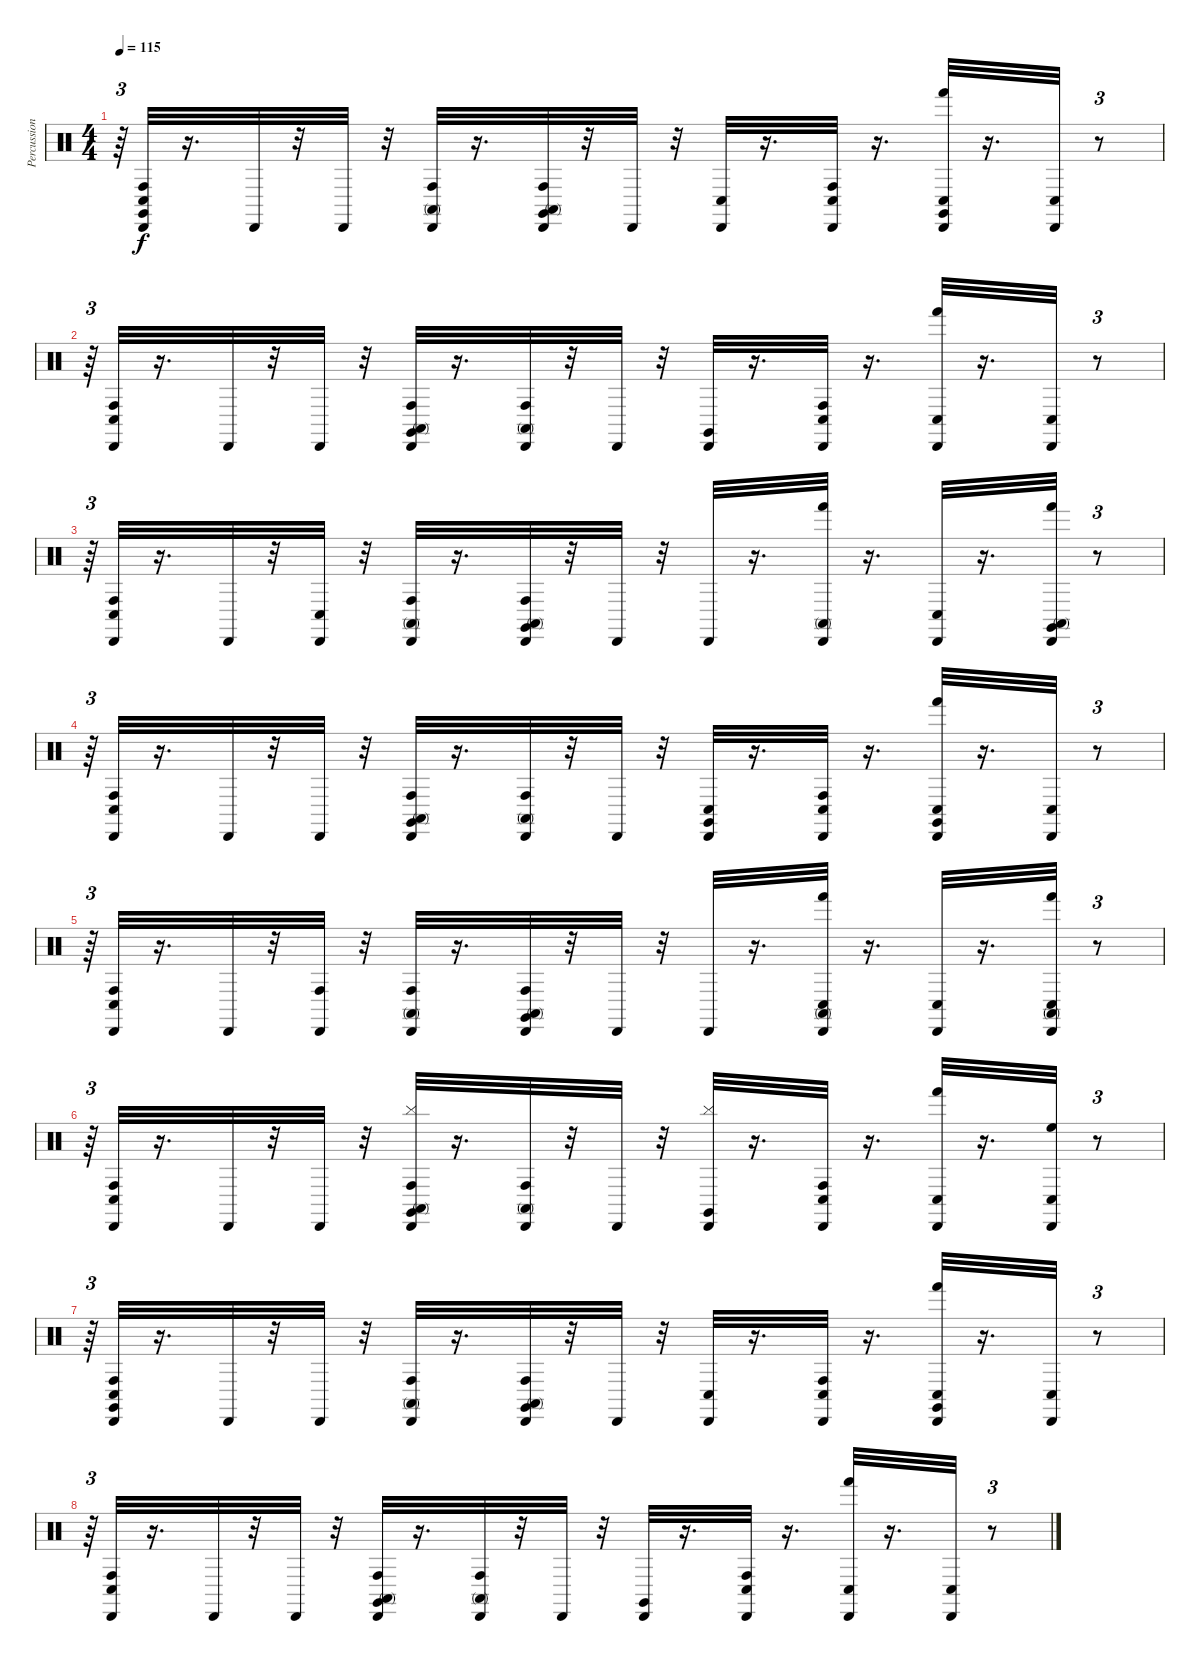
\track ("Percussion" "Percussion") {instrument percussion}
\staff {score}
\articulation defaults
\ts (4 4)
\tempo 115
\clef neutral
\ks c
r.64{tu (3 2) dy f} ("Claves (hit)" "Conga high (hit)" "Conga low (hit)" "Cabasa (hit)").32 r.16{d} "Cabasa (hit)".32 r.32 "Cabasa (hit)".32 r.32 ("Conga high (mute)" "Cabasa (hit)" "Conga high (hit)").32 r.16{d} ("Conga high (hit)" "Conga high (mute)" "Claves (hit)" "Cabasa (hit)").32 r.32 "Cabasa (hit)".32 r.32 ("Cabasa (hit)" "Conga low (hit)").32 r.16{d} ("Conga low (hit)" "Conga high (hit)" "Cabasa (hit)").32 r.16{d} ("Claves (hit)" "Conga low (hit)" "Hand (hit)" "Cabasa (hit)").32 r.16{d} ("Conga low (hit)" "Cabasa (hit)").32 r.8{tu (3 2)} |
r.64{tu (3 2)} ("Conga low (hit)" "Cabasa (hit)" "Conga high (hit)").32 r.16{d} "Cabasa (hit)".32 r.32 "Cabasa (hit)".32 r.32 ("Cabasa (hit)" "Conga high (mute)" "Claves (hit)" "Conga high (hit)").32 r.16{d} ("Conga high (hit)" "Conga high (mute)" "Cabasa (hit)").32 r.32 "Cabasa (hit)".32 r.32 ("Claves (hit)" "Cabasa (hit)").32 r.16{d} ("Cabasa (hit)" "Conga low (hit)" "Conga high (hit)").32 r.16{d} ("Conga low (hit)" "Cabasa (hit)" "Hand (hit)").32 r.16{d} ("Cabasa (hit)" "Conga low (hit)").32 r.8{tu (3 2)} |
r.64{tu (3 2)} ("Cabasa (hit)" "Conga low (hit)" "Conga high (hit)").32 r.16{d} "Cabasa (hit)".32 r.32 ("Cabasa (hit)" "Conga low (hit)").32 r.32 ("Conga high (mute)" "Cabasa (hit)" "Conga high (hit)").32 r.16{d} ("Conga high (mute)" "Conga high (hit)" "Claves (hit)" "Cabasa (hit)").32 r.32 "Cabasa (hit)".32 r.32 "Cabasa (hit)".32 r.16{d} ("Hand (hit)" "Cabasa (hit)" "Conga high (mute)").32 r.16{d} ("Cabasa (hit)" "Conga low (hit)").32 r.16{d} ("Hand (hit)" "Cabasa (hit)" "Claves (hit)" "Conga high (mute)").32 r.8{tu (3 2)} |
r.64{tu (3 2)} ("Conga high (hit)" "Cabasa (hit)" "Conga low (hit)").32 r.16{d} "Cabasa (hit)".32 r.32 "Cabasa (hit)".32 r.32 ("Cabasa (hit)" "Conga high (mute)" "Conga high (hit)" "Claves (hit)").32 r.16{d} ("Cabasa (hit)" "Conga high (hit)" "Conga high (mute)").32 r.32 "Cabasa (hit)".32 r.32 ("Claves (hit)" "Cabasa (hit)" "Conga low (hit)").32 r.16{d} ("Cabasa (hit)" "Conga low (hit)" "Conga high (hit)").32 r.16{d} ("Hand (hit)" "Cabasa (hit)" "Conga low (hit)" "Claves (hit)").32 r.16{d} ("Conga low (hit)" "Cabasa (hit)").32 r.8{tu (3 2)} |
r.64{tu (3 2)} ("Conga low (hit)" "Conga high (hit)" "Cabasa (hit)").32 r.16{d} "Cabasa (hit)".32 r.32 ("Conga high (hit)" "Cabasa (hit)").32 r.32 ("Conga high (hit)" "Conga high (mute)" "Cabasa (hit)").32 r.16{d} ("Conga high (hit)" "Cabasa (hit)" "Claves (hit)" "Conga high (mute)").32 r.32 "Cabasa (hit)".32 r.32 "Cabasa (hit)".32 r.16{d} ("Hand (hit)" "Cabasa (hit)" "Conga low (hit)" "Conga high (mute)").32 r.16{d} ("Cabasa (hit)" "Conga low (hit)").32 r.16{d} ("Conga high (mute)" "Hand (hit)" "Cabasa (hit)" "Conga low (hit)").32 r.8{tu (3 2)} |
r.64{tu (3 2)} ("Cabasa (hit)" "Conga low (hit)" "Conga high (hit)").32 r.16{d} "Cabasa (hit)".32 r.32 "Cabasa (hit)".32 r.32 ("Conga high (mute)" "Conga high (hit)" "Cabasa (hit)" "Cymbal (hit)" "Claves (hit)").32 r.16{d} ("Conga high (mute)" "Conga high (hit)" "Cabasa (hit)").32 r.32 "Cabasa (hit)".32 r.32 ("Claves (hit)" "Cymbal (hit)" "Cabasa (hit)").32 r.16{d} ("Cabasa (hit)" "Conga low (hit)" "Conga high (hit)").32 r.16{d} ("Hand (hit)" "Conga low (hit)" "Cabasa (hit)").32 r.16{d} ("High Floor Tom (hit)" "Conga low (hit)" "Cabasa (hit)").32 r.8{tu (3 2)} |
r.64{tu (3 2)} ("Conga high (hit)" "Cabasa (hit)" "Claves (hit)" "Conga low (hit)").32 r.16{d} "Cabasa (hit)".32 r.32 "Cabasa (hit)".32 r.32 ("Cabasa (hit)" "Conga high (mute)" "Conga high (hit)").32 r.16{d} ("Cabasa (hit)" "Claves (hit)" "Conga high (mute)" "Conga high (hit)").32 r.32 "Cabasa (hit)".32 r.32 ("Cabasa (hit)" "Conga low (hit)").32 r.16{d} ("Conga high (hit)" "Cabasa (hit)" "Conga low (hit)").32 r.16{d} ("Claves (hit)" "Conga low (hit)" "Cabasa (hit)" "Hand (hit)").32 r.16{d} ("Conga low (hit)" "Cabasa (hit)").32 r.8{tu (3 2)} |
r.64{tu (3 2)} ("Cabasa (hit)" "Conga high (hit)" "Conga low (hit)").32 r.16{d} "Cabasa (hit)".32 r.32 "Cabasa (hit)".32 r.32 ("Claves (hit)" "Conga high (hit)" "Conga high (mute)" "Cabasa (hit)").32 r.16{d} ("Cabasa (hit)" "Conga high (mute)" "Conga high (hit)").32 r.32 "Cabasa (hit)".32 r.32 ("Claves (hit)" "Cabasa (hit)").32 r.16{d} ("Conga low (hit)" "Cabasa (hit)" "Conga high (hit)").32 r.16{d} ("Conga low (hit)" "Cabasa (hit)" "Hand (hit)").32 r.16{d} ("Conga low (hit)" "Cabasa (hit)").32 r.8{tu (3 2)}
